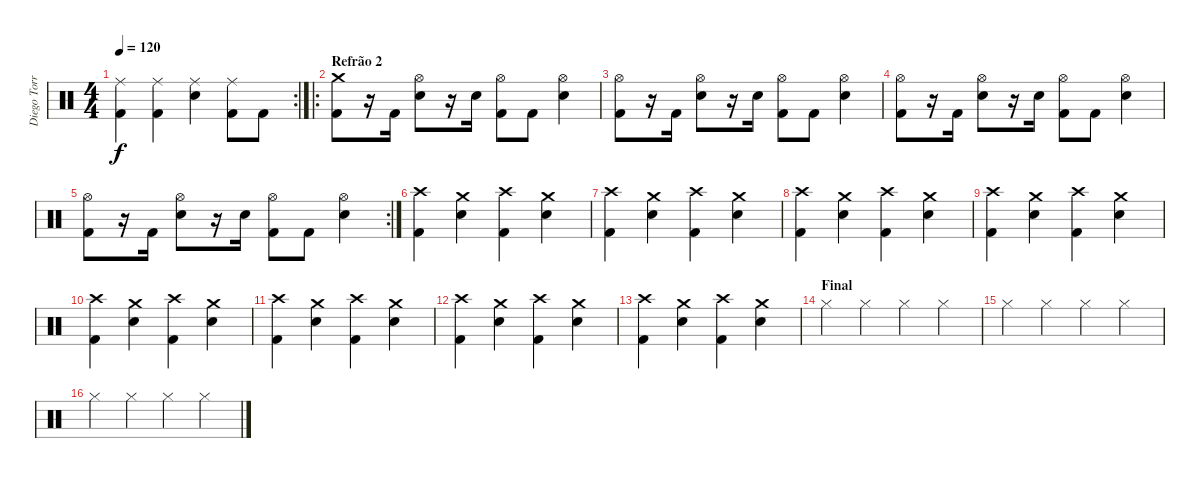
\track ("Diego Torres [Bateria]" "Diego Torr") {instrument percussion}
\staff {score}
\articulation defaults
\rc 2
\ts (4 4)
\tempo 120
\clef neutral
\ks c
("Ride (middle)" "Kick (hit) 2").4{dy f} ("Ride (middle)" "Kick (hit) 2").4 ("Ride (middle)" "Electric Snare (hit)").4 ("Ride (middle)" "Kick (hit) 2").8 "Kick (hit) 2".8 |
\ro
\section ("" "Refrão 2")
("Crash medium (hit)" "Kick (hit) 2").8 r.16 "Kick (hit) 2".16 ("Hi-Hat (open)" "Electric Snare (hit)").8 r.16 "Electric Snare (hit)".16 ("Hi-Hat (open)" "Kick (hit) 2").8 "Kick (hit) 2".8 ("Hi-Hat (open)" "Electric Snare (hit)").4 |
("Hi-Hat (open)" "Kick (hit) 2").8 r.16 "Kick (hit) 2".16 ("Hi-Hat (open)" "Electric Snare (hit)").8 r.16 "Electric Snare (hit)".16 ("Hi-Hat (open)" "Kick (hit) 2").8 "Kick (hit) 2".8 ("Hi-Hat (open)" "Electric Snare (hit)").4 |
("Hi-Hat (open)" "Kick (hit) 2").8 r.16 "Kick (hit) 2".16 ("Hi-Hat (open)" "Electric Snare (hit)").8 r.16 "Electric Snare (hit)".16 ("Hi-Hat (open)" "Kick (hit) 2").8 "Kick (hit) 2".8 ("Hi-Hat (open)" "Electric Snare (hit)").4 |
\rc 2
("Hi-Hat (open)" "Kick (hit) 2").8 r.16 "Kick (hit) 2".16 ("Hi-Hat (open)" "Electric Snare (hit)").8 r.16 "Electric Snare (hit)".16 ("Hi-Hat (open)" "Kick (hit) 2").8 "Kick (hit) 2".8 ("Hi-Hat (open)" "Electric Snare (hit)").4 |
("Crash high (hit)" "Kick (hit) 2").4 ("Crash medium (hit)" "Electric Snare (hit)").4 ("Crash high (hit)" "Kick (hit) 2").4 ("Crash medium (hit)" "Electric Snare (hit)").4 |
("Crash high (hit)" "Kick (hit) 2").4 ("Crash medium (hit)" "Electric Snare (hit)").4 ("Crash high (hit)" "Kick (hit) 2").4 ("Crash medium (hit)" "Electric Snare (hit)").4 |
("Crash high (hit)" "Kick (hit) 2").4 ("Crash medium (hit)" "Electric Snare (hit)").4 ("Crash high (hit)" "Kick (hit) 2").4 ("Crash medium (hit)" "Electric Snare (hit)").4 |
("Crash high (hit)" "Kick (hit) 2").4 ("Crash medium (hit)" "Electric Snare (hit)").4 ("Crash high (hit)" "Kick (hit) 2").4 ("Crash medium (hit)" "Electric Snare (hit)").4 |
("Crash high (hit)" "Kick (hit) 2").4 ("Crash medium (hit)" "Electric Snare (hit)").4 ("Crash high (hit)" "Kick (hit) 2").4 ("Crash medium (hit)" "Electric Snare (hit)").4 |
("Crash high (hit)" "Kick (hit) 2").4 ("Crash medium (hit)" "Electric Snare (hit)").4 ("Crash high (hit)" "Kick (hit) 2").4 ("Crash medium (hit)" "Electric Snare (hit)").4 |
("Crash high (hit)" "Kick (hit) 2").4 ("Crash medium (hit)" "Electric Snare (hit)").4 ("Crash high (hit)" "Kick (hit) 2").4 ("Crash medium (hit)" "Electric Snare (hit)").4 |
("Crash high (hit)" "Kick (hit) 2").4 ("Crash medium (hit)" "Electric Snare (hit)").4 ("Crash high (hit)" "Kick (hit) 2").4 ("Crash medium (hit)" "Electric Snare (hit)").4 |
\section ("" "Final")
"Hi-Hat (closed)".4 "Hi-Hat (closed)".4 "Hi-Hat (closed)".4 "Hi-Hat (closed)".4 |
"Hi-Hat (closed)".4 "Hi-Hat (closed)".4 "Hi-Hat (closed)".4 "Hi-Hat (closed)".4 |
"Hi-Hat (closed)".4 "Hi-Hat (closed)".4 "Hi-Hat (closed)".4 "Hi-Hat (closed)".4
